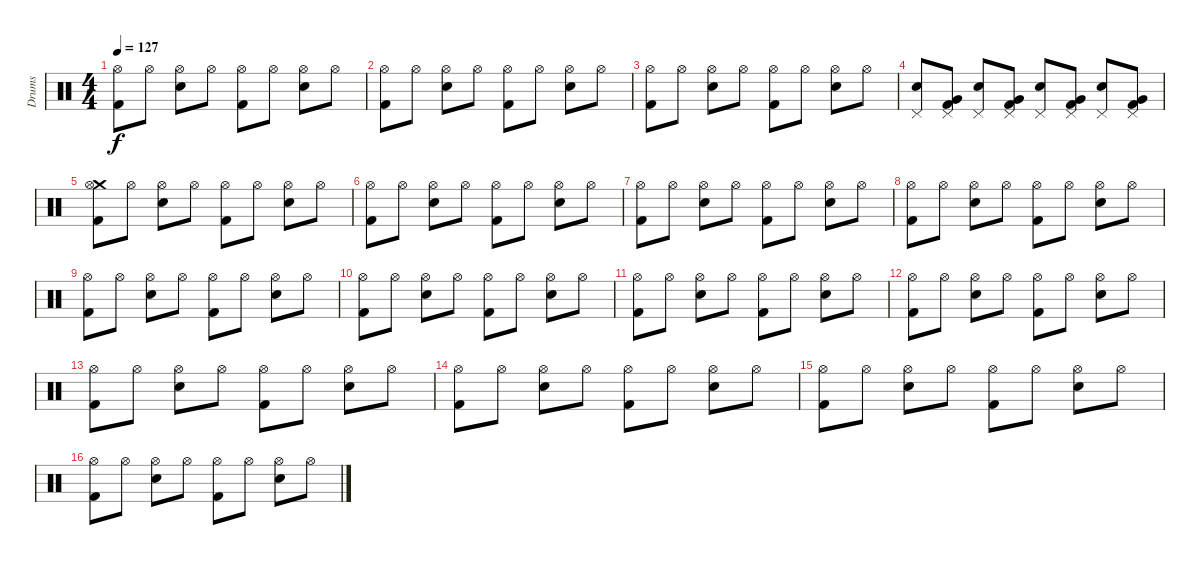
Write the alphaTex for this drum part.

\track ("Drums" "Drums") {instrument percussion}
\staff {score}
\articulation defaults
\ts (4 4)
\tempo 127
\clef neutral
\ks c
("Hi-Hat (open)" "Kick (hit) 2").8{dy f} "Hi-Hat (open)".8 ("Hi-Hat (open)" "Electric Snare (hit)").8 "Hi-Hat (open)".8 ("Hi-Hat (open)" "Kick (hit) 2").8 "Hi-Hat (open)".8 ("Hi-Hat (open)" "Electric Snare (hit)").8 "Hi-Hat (open)".8 |
("Hi-Hat (open)" "Kick (hit) 2").8 "Hi-Hat (open)".8 ("Hi-Hat (open)" "Electric Snare (hit)").8 "Hi-Hat (open)".8 ("Hi-Hat (open)" "Kick (hit) 2").8 "Hi-Hat (open)".8 ("Hi-Hat (open)" "Electric Snare (hit)").8 "Hi-Hat (open)".8 |
("Hi-Hat (open)" "Kick (hit) 2").8 "Hi-Hat (open)".8 ("Hi-Hat (open)" "Electric Snare (hit)").8 "Hi-Hat (open)".8 ("Hi-Hat (open)" "Kick (hit) 2").8 "Hi-Hat (open)".8 ("Hi-Hat (open)" "Electric Snare (hit)").8 "Hi-Hat (open)".8 |
("Pedal Hi-Hat (hit)" "Electric Snare (hit)").8 ("Pedal Hi-Hat (hit)" "Very Low Tom (hit)" "Kick (hit) 2").8 ("Pedal Hi-Hat (hit)" "Electric Snare (hit)").8 ("Pedal Hi-Hat (hit)" "Very Low Tom (hit)" "Kick (hit) 2").8 ("Pedal Hi-Hat (hit)" "Electric Snare (hit)").8 ("Pedal Hi-Hat (hit)" "Very Low Tom (hit)" "Kick (hit) 2").8 ("Pedal Hi-Hat (hit)" "Electric Snare (hit)").8 ("Pedal Hi-Hat (hit)" "Very Low Tom (hit)" "Kick (hit) 2").8 |
("Crash medium (hit)" "Hi-Hat (open)" "Kick (hit) 2").8 "Hi-Hat (open)".8 ("Hi-Hat (open)" "Electric Snare (hit)").8 "Hi-Hat (open)".8 ("Hi-Hat (open)" "Kick (hit) 2").8 "Hi-Hat (open)".8 ("Hi-Hat (open)" "Electric Snare (hit)").8 "Hi-Hat (open)".8 |
("Hi-Hat (open)" "Kick (hit) 2").8 "Hi-Hat (open)".8 ("Hi-Hat (open)" "Electric Snare (hit)").8 "Hi-Hat (open)".8 ("Hi-Hat (open)" "Kick (hit) 2").8 "Hi-Hat (open)".8 ("Hi-Hat (open)" "Electric Snare (hit)").8 "Hi-Hat (open)".8 |
("Hi-Hat (open)" "Kick (hit) 2").8 "Hi-Hat (open)".8 ("Hi-Hat (open)" "Electric Snare (hit)").8 "Hi-Hat (open)".8 ("Hi-Hat (open)" "Kick (hit) 2").8 "Hi-Hat (open)".8 ("Hi-Hat (open)" "Electric Snare (hit)").8 "Hi-Hat (open)".8 |
("Hi-Hat (open)" "Kick (hit) 2").8 "Hi-Hat (open)".8 ("Hi-Hat (open)" "Electric Snare (hit)").8 "Hi-Hat (open)".8 ("Hi-Hat (open)" "Kick (hit) 2").8 "Hi-Hat (open)".8 ("Hi-Hat (open)" "Electric Snare (hit)").8 "Hi-Hat (open)".8 |
("Hi-Hat (open)" "Kick (hit) 2").8 "Hi-Hat (open)".8 ("Hi-Hat (open)" "Electric Snare (hit)").8 "Hi-Hat (open)".8 ("Hi-Hat (open)" "Kick (hit) 2").8 "Hi-Hat (open)".8 ("Hi-Hat (open)" "Electric Snare (hit)").8 "Hi-Hat (open)".8 |
("Hi-Hat (open)" "Kick (hit) 2").8 "Hi-Hat (open)".8 ("Hi-Hat (open)" "Electric Snare (hit)").8 "Hi-Hat (open)".8 ("Hi-Hat (open)" "Kick (hit) 2").8 "Hi-Hat (open)".8 ("Hi-Hat (open)" "Electric Snare (hit)").8 "Hi-Hat (open)".8 |
("Hi-Hat (open)" "Kick (hit) 2").8 "Hi-Hat (open)".8 ("Hi-Hat (open)" "Electric Snare (hit)").8 "Hi-Hat (open)".8 ("Hi-Hat (open)" "Kick (hit) 2").8 "Hi-Hat (open)".8 ("Hi-Hat (open)" "Electric Snare (hit)").8 "Hi-Hat (open)".8 |
("Hi-Hat (open)" "Kick (hit) 2").8 "Hi-Hat (open)".8 ("Hi-Hat (open)" "Electric Snare (hit)").8 "Hi-Hat (open)".8 ("Hi-Hat (open)" "Kick (hit) 2").8 "Hi-Hat (open)".8 ("Hi-Hat (open)" "Electric Snare (hit)").8 "Hi-Hat (open)".8 |
("Hi-Hat (open)" "Kick (hit) 2").8 "Hi-Hat (open)".8 ("Hi-Hat (open)" "Electric Snare (hit)").8 "Hi-Hat (open)".8 ("Hi-Hat (open)" "Kick (hit) 2").8 "Hi-Hat (open)".8 ("Hi-Hat (open)" "Electric Snare (hit)").8 "Hi-Hat (open)".8 |
("Hi-Hat (open)" "Kick (hit) 2").8 "Hi-Hat (open)".8 ("Hi-Hat (open)" "Electric Snare (hit)").8 "Hi-Hat (open)".8 ("Hi-Hat (open)" "Kick (hit) 2").8 "Hi-Hat (open)".8 ("Hi-Hat (open)" "Electric Snare (hit)").8 "Hi-Hat (open)".8 |
("Hi-Hat (open)" "Kick (hit) 2").8 "Hi-Hat (open)".8 ("Hi-Hat (open)" "Electric Snare (hit)").8 "Hi-Hat (open)".8 ("Hi-Hat (open)" "Kick (hit) 2").8 "Hi-Hat (open)".8 ("Hi-Hat (open)" "Electric Snare (hit)").8 "Hi-Hat (open)".8 |
("Hi-Hat (open)" "Kick (hit) 2").8 "Hi-Hat (open)".8 ("Hi-Hat (open)" "Electric Snare (hit)").8 "Hi-Hat (open)".8 ("Hi-Hat (open)" "Kick (hit) 2").8 "Hi-Hat (open)".8 ("Hi-Hat (open)" "Electric Snare (hit)").8 "Hi-Hat (open)".8
